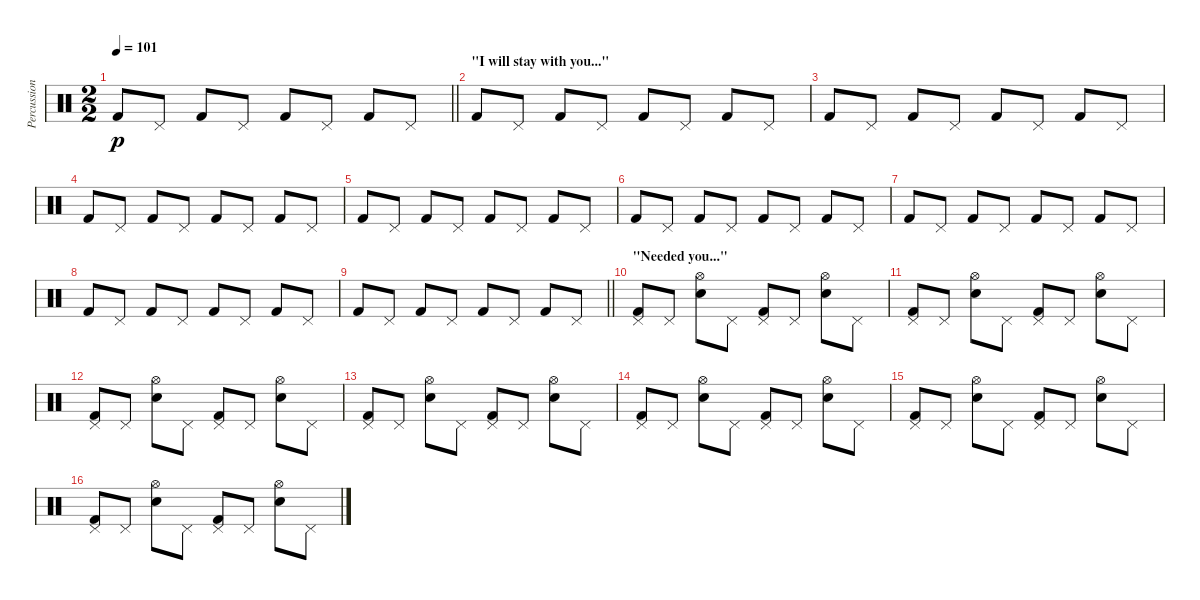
\track ("Percussions" "Percussion") {instrument percussion}
\staff {score}
\articulation defaults
\ts (2 2)
\tempo 101
\clef neutral
\barLineRight lightlight
\ks c "Kick (hit) 2".8{dy p} "Pedal Hi-Hat (hit)".8 "Kick (hit) 2".8 "Pedal Hi-Hat (hit)".8 "Kick (hit) 2".8 "Pedal Hi-Hat (hit)".8 "Kick (hit) 2".8 "Pedal Hi-Hat (hit)".8
|
\section ("" "\"I will stay with you...\"")
"Kick (hit) 2".8 "Pedal Hi-Hat (hit)".8 "Kick (hit) 2".8 "Pedal Hi-Hat (hit)".8 "Kick (hit) 2".8 "Pedal Hi-Hat (hit)".8 "Kick (hit) 2".8 "Pedal Hi-Hat (hit)".8 |
"Kick (hit) 2".8 "Pedal Hi-Hat (hit)".8 "Kick (hit) 2".8 "Pedal Hi-Hat (hit)".8 "Kick (hit) 2".8 "Pedal Hi-Hat (hit)".8 "Kick (hit) 2".8 "Pedal Hi-Hat (hit)".8 |
"Kick (hit) 2".8 "Pedal Hi-Hat (hit)".8 "Kick (hit) 2".8 "Pedal Hi-Hat (hit)".8 "Kick (hit) 2".8 "Pedal Hi-Hat (hit)".8 "Kick (hit) 2".8 "Pedal Hi-Hat (hit)".8 |
"Kick (hit) 2".8 "Pedal Hi-Hat (hit)".8 "Kick (hit) 2".8 "Pedal Hi-Hat (hit)".8 "Kick (hit) 2".8 "Pedal Hi-Hat (hit)".8 "Kick (hit) 2".8 "Pedal Hi-Hat (hit)".8 |
"Kick (hit) 2".8 "Pedal Hi-Hat (hit)".8 "Kick (hit) 2".8 "Pedal Hi-Hat (hit)".8 "Kick (hit) 2".8 "Pedal Hi-Hat (hit)".8 "Kick (hit) 2".8 "Pedal Hi-Hat (hit)".8 |
"Kick (hit) 2".8 "Pedal Hi-Hat (hit)".8 "Kick (hit) 2".8 "Pedal Hi-Hat (hit)".8 "Kick (hit) 2".8 "Pedal Hi-Hat (hit)".8 "Kick (hit) 2".8 "Pedal Hi-Hat (hit)".8 |
"Kick (hit) 2".8 "Pedal Hi-Hat (hit)".8 "Kick (hit) 2".8 "Pedal Hi-Hat (hit)".8 "Kick (hit) 2".8 "Pedal Hi-Hat (hit)".8 "Kick (hit) 2".8 "Pedal Hi-Hat (hit)".8 |
\barLineRight lightlight "Kick (hit) 2".8 "Pedal Hi-Hat (hit)".8 "Kick (hit) 2".8 "Pedal Hi-Hat (hit)".8 "Kick (hit) 2".8 "Pedal Hi-Hat (hit)".8 "Kick (hit) 2".8 "Pedal Hi-Hat (hit)".8
|
\section ("" "\"Needed you...\"")
("Kick (hit) 2" "Pedal Hi-Hat (hit)").8 "Pedal Hi-Hat (hit)".8 ("Snare (hit) 2" "Hi-Hat (open)").8 "Pedal Hi-Hat (hit)".8 ("Kick (hit) 2" "Pedal Hi-Hat (hit)").8 "Pedal Hi-Hat (hit)".8 ("Snare (hit) 2" "Hi-Hat (open)").8 "Pedal Hi-Hat (hit)".8 |
("Kick (hit) 2" "Pedal Hi-Hat (hit)").8 "Pedal Hi-Hat (hit)".8 ("Snare (hit) 2" "Hi-Hat (open)").8 "Pedal Hi-Hat (hit)".8 ("Kick (hit) 2" "Pedal Hi-Hat (hit)").8 "Pedal Hi-Hat (hit)".8 ("Snare (hit) 2" "Hi-Hat (open)").8 "Pedal Hi-Hat (hit)".8 |
("Kick (hit) 2" "Pedal Hi-Hat (hit)").8 "Pedal Hi-Hat (hit)".8 ("Snare (hit) 2" "Hi-Hat (open)").8 "Pedal Hi-Hat (hit)".8 ("Kick (hit) 2" "Pedal Hi-Hat (hit)").8 "Pedal Hi-Hat (hit)".8 ("Snare (hit) 2" "Hi-Hat (open)").8 "Pedal Hi-Hat (hit)".8 |
("Kick (hit) 2" "Pedal Hi-Hat (hit)").8 "Pedal Hi-Hat (hit)".8 ("Snare (hit) 2" "Hi-Hat (open)").8 "Pedal Hi-Hat (hit)".8 ("Kick (hit) 2" "Pedal Hi-Hat (hit)").8 "Pedal Hi-Hat (hit)".8 ("Snare (hit) 2" "Hi-Hat (open)").8 "Pedal Hi-Hat (hit)".8 |
("Kick (hit) 2" "Pedal Hi-Hat (hit)").8 "Pedal Hi-Hat (hit)".8 ("Snare (hit) 2" "Hi-Hat (open)").8 "Pedal Hi-Hat (hit)".8 ("Kick (hit) 2" "Pedal Hi-Hat (hit)").8 "Pedal Hi-Hat (hit)".8 ("Snare (hit) 2" "Hi-Hat (open)").8 "Pedal Hi-Hat (hit)".8 |
("Kick (hit) 2" "Pedal Hi-Hat (hit)").8 "Pedal Hi-Hat (hit)".8 ("Snare (hit) 2" "Hi-Hat (open)").8 "Pedal Hi-Hat (hit)".8 ("Kick (hit) 2" "Pedal Hi-Hat (hit)").8 "Pedal Hi-Hat (hit)".8 ("Snare (hit) 2" "Hi-Hat (open)").8 "Pedal Hi-Hat (hit)".8 |
("Kick (hit) 2" "Pedal Hi-Hat (hit)").8 "Pedal Hi-Hat (hit)".8 ("Snare (hit) 2" "Hi-Hat (open)").8 "Pedal Hi-Hat (hit)".8 ("Kick (hit) 2" "Pedal Hi-Hat (hit)").8 "Pedal Hi-Hat (hit)".8 ("Snare (hit) 2" "Hi-Hat (open)").8 "Pedal Hi-Hat (hit)".8
